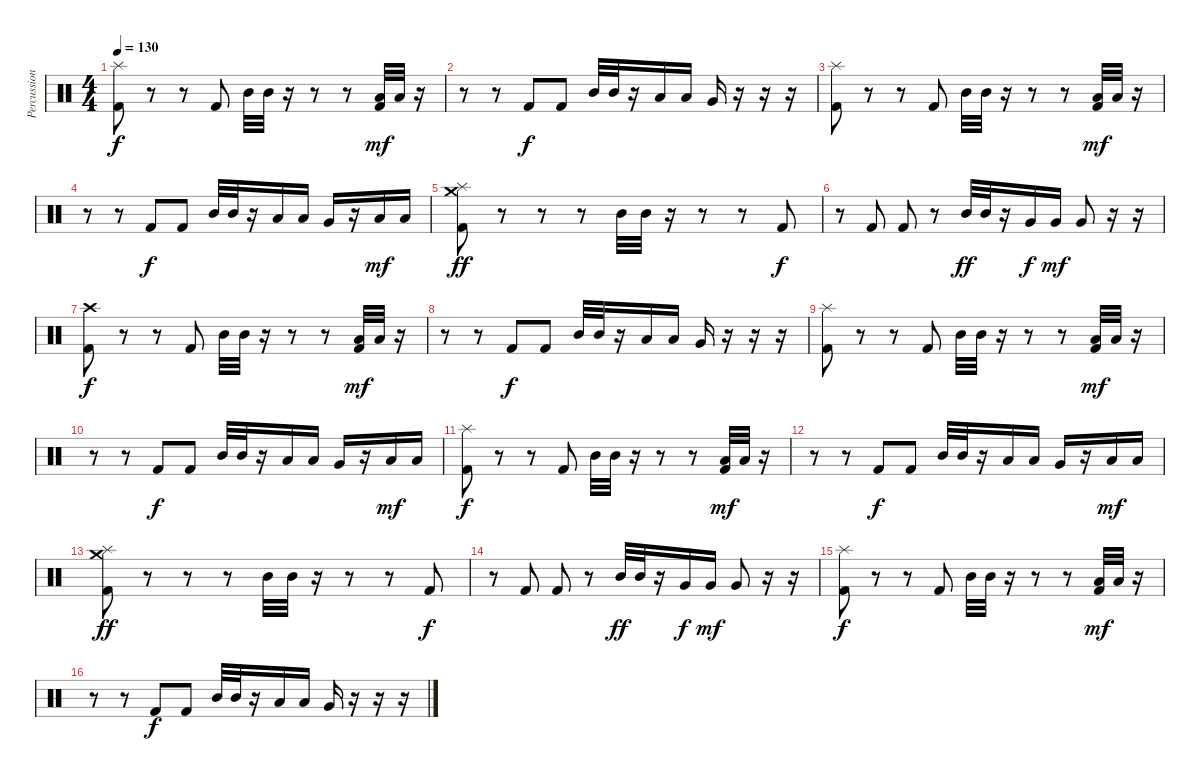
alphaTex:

\track ("Percussion" "Percussion") {instrument percussion}
\staff {score}
\articulation defaults
\ts (4 4)
\tempo 130
\clef neutral
\ks c
("Splash (hit)" "Kick (hit) 2").8{dy f} r.8 r.8 "Kick (hit) 2".8 "Mid Tom (hit)".32 "Mid Tom (hit)".32 r.16 r.8 r.8 ("Low Tom (hit)" "Kick (hit) 2").32{dy mf} "Low Tom (hit)".32 r.16 |
r.8 r.8 "Kick (hit) 2".8{dy f} "Kick (hit) 2".8 "Mid Tom (hit)".32 "Mid Tom (hit)".32 r.16 "Low Tom (hit)".16 "Low Tom (hit)".16 "Very Low Tom (hit)".16 r.16 r.16 r.16 |
("Splash (hit)" "Kick (hit) 2").8 r.8 r.8 "Kick (hit) 2".8 "Mid Tom (hit)".32 "Mid Tom (hit)".32 r.16 r.8 r.8 ("Low Tom (hit)" "Kick (hit) 2").32{dy mf} "Low Tom (hit)".32 r.16 |
r.8 r.8 "Kick (hit) 2".8{dy f} "Kick (hit) 2".8 "Mid Tom (hit)".32 "Mid Tom (hit)".32 r.16 "Low Tom (hit)".16 "Low Tom (hit)".16 "Very Low Tom (hit)".16 r.16 "Low Floor Tom (hit)".16{dy mf} "Low Floor Tom (hit)".16 |
("Splash (hit)" "Crash medium (hit)" "Kick (hit) 2").8{dy ff} r.8 r.8 r.8 "Mid Tom (hit)".32 "Mid Tom (hit)".32 r.16 r.8 r.8 "Kick (hit) 2".8{dy f} |
r.8 "Kick (hit) 2".8 "Kick (hit) 2".8 r.8 "Mid Tom (hit)".32{dy ff} "Mid Tom (hit)".32 r.16 "Very Low Tom (hit)".16{dy f} "Very Low Tom (hit)".16{dy mf} "Very Low Tom (hit)".8 r.16 r.16 |
("Crash high (hit)" "Kick (hit) 2").8{dy f} r.8 r.8 "Kick (hit) 2".8 "Mid Tom (hit)".32 "Mid Tom (hit)".32 r.16 r.8 r.8 ("Low Tom (hit)" "Kick (hit) 2").32{dy mf} "Low Tom (hit)".32 r.16 |
r.8 r.8 "Kick (hit) 2".8{dy f} "Kick (hit) 2".8 "Mid Tom (hit)".32 "Mid Tom (hit)".32 r.16 "Low Tom (hit)".16 "Low Tom (hit)".16 "Very Low Tom (hit)".16 r.16 r.16 r.16 |
("Splash (hit)" "Kick (hit) 2").8 r.8 r.8 "Kick (hit) 2".8 "Mid Tom (hit)".32 "Mid Tom (hit)".32 r.16 r.8 r.8 ("Low Tom (hit)" "Kick (hit) 2").32{dy mf} "Low Tom (hit)".32 r.16 |
r.8 r.8 "Kick (hit) 2".8{dy f} "Kick (hit) 2".8 "Mid Tom (hit)".32 "Mid Tom (hit)".32 r.16 "Low Tom (hit)".16 "Low Tom (hit)".16 "Very Low Tom (hit)".16 r.16 "Low Floor Tom (hit)".16{dy mf} "Low Floor Tom (hit)".16 |
("Splash (hit)" "Kick (hit) 2").8{dy f} r.8 r.8 "Kick (hit) 2".8 "Mid Tom (hit)".32 "Mid Tom (hit)".32 r.16 r.8 r.8 ("Low Tom (hit)" "Kick (hit) 2").32{dy mf} "Low Tom (hit)".32 r.16 |
r.8 r.8 "Kick (hit) 2".8{dy f} "Kick (hit) 2".8 "Mid Tom (hit)".32 "Mid Tom (hit)".32 r.16 "Low Tom (hit)".16 "Low Tom (hit)".16 "Very Low Tom (hit)".16 r.16 "Low Floor Tom (hit)".16{dy mf} "Low Floor Tom (hit)".16 |
("Splash (hit)" "Crash medium (hit)" "Kick (hit) 2").8{dy ff} r.8 r.8 r.8 "Mid Tom (hit)".32 "Mid Tom (hit)".32 r.16 r.8 r.8 "Kick (hit) 2".8{dy f} |
r.8 "Kick (hit) 2".8 "Kick (hit) 2".8 r.8 "Mid Tom (hit)".32{dy ff} "Mid Tom (hit)".32 r.16 "Very Low Tom (hit)".16{dy f} "Very Low Tom (hit)".16{dy mf} "Very Low Tom (hit)".8 r.16 r.16 |
("Splash (hit)" "Kick (hit) 2").8{dy f} r.8 r.8 "Kick (hit) 2".8 "Mid Tom (hit)".32 "Mid Tom (hit)".32 r.16 r.8 r.8 ("Low Tom (hit)" "Kick (hit) 2").32{dy mf} "Low Tom (hit)".32 r.16 |
r.8 r.8 "Kick (hit) 2".8{dy f} "Kick (hit) 2".8 "Mid Tom (hit)".32 "Mid Tom (hit)".32 r.16 "Low Tom (hit)".16 "Low Tom (hit)".16 "Very Low Tom (hit)".16 r.16 r.16 r.16
